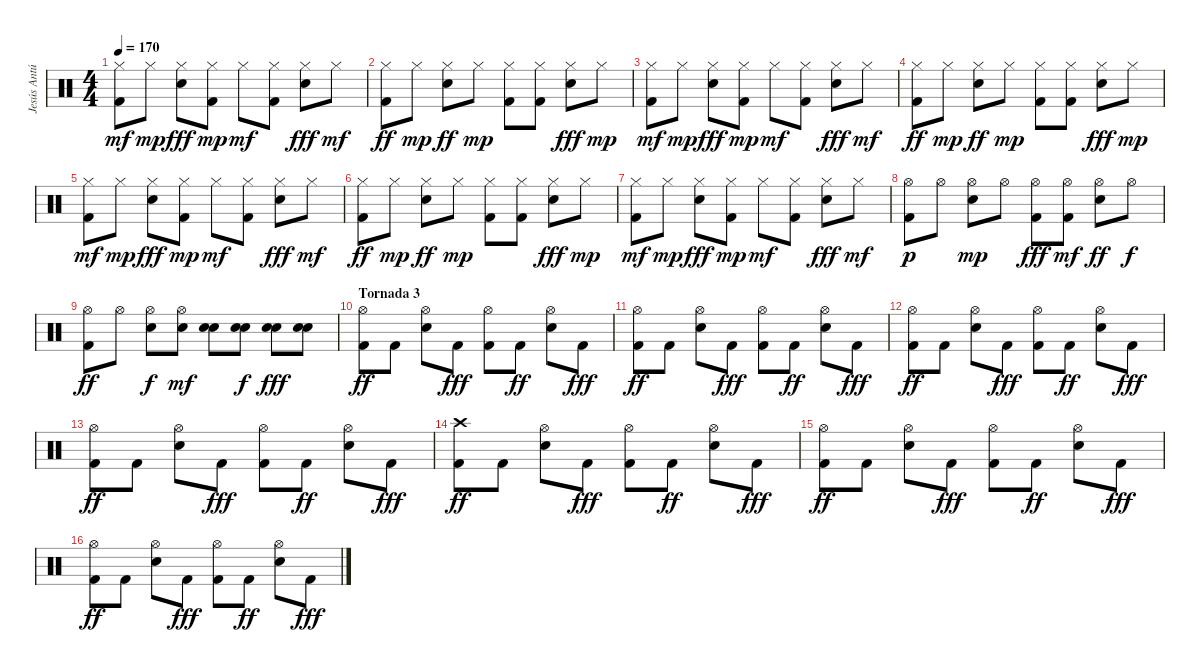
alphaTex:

\track ("Jesús Antúnez (Bateria)" "Jesús Antú") {instrument percussion}
\staff {score}
\articulation defaults
\ts (4 4)
\tempo 170
\clef neutral
\ks c
("Kick (hit) 2" "Hi-Hat (closed)").8{dy mf} "Hi-Hat (closed)".8{dy mp} ("Electric Snare (hit)" "Hi-Hat (closed)").8{dy fff} ("Kick (hit) 2" "Hi-Hat (closed)").8{dy mp} "Hi-Hat (closed)".8{dy mf} ("Kick (hit) 2" "Hi-Hat (closed)").8 ("Electric Snare (hit)" "Hi-Hat (closed)").8{dy fff} "Hi-Hat (closed)".8{dy mf} |
("Kick (hit) 2" "Hi-Hat (closed)").8{dy ff} "Hi-Hat (closed)".8{dy mp} ("Electric Snare (hit)" "Hi-Hat (closed)").8{dy ff} "Hi-Hat (closed)".8{dy mp} ("Kick (hit) 2" "Hi-Hat (closed)").8 ("Kick (hit) 2" "Hi-Hat (closed)").8 ("Electric Snare (hit)" "Hi-Hat (closed)").8{dy fff} "Hi-Hat (closed)".8{dy mp} |
("Kick (hit) 2" "Hi-Hat (closed)").8{dy mf} "Hi-Hat (closed)".8{dy mp} ("Electric Snare (hit)" "Hi-Hat (closed)").8{dy fff} ("Kick (hit) 2" "Hi-Hat (closed)").8{dy mp} "Hi-Hat (closed)".8{dy mf} ("Kick (hit) 2" "Hi-Hat (closed)").8 ("Electric Snare (hit)" "Hi-Hat (closed)").8{dy fff} "Hi-Hat (closed)".8{dy mf} |
("Kick (hit) 2" "Hi-Hat (closed)").8{dy ff} "Hi-Hat (closed)".8{dy mp} ("Electric Snare (hit)" "Hi-Hat (closed)").8{dy ff} "Hi-Hat (closed)".8{dy mp} ("Kick (hit) 2" "Hi-Hat (closed)").8 ("Kick (hit) 2" "Hi-Hat (closed)").8 ("Electric Snare (hit)" "Hi-Hat (closed)").8{dy fff} "Hi-Hat (closed)".8{dy mp} |
("Kick (hit) 2" "Hi-Hat (closed)").8{dy mf} "Hi-Hat (closed)".8{dy mp} ("Electric Snare (hit)" "Hi-Hat (closed)").8{dy fff} ("Kick (hit) 2" "Hi-Hat (closed)").8{dy mp} "Hi-Hat (closed)".8{dy mf} ("Kick (hit) 2" "Hi-Hat (closed)").8 ("Electric Snare (hit)" "Hi-Hat (closed)").8{dy fff} "Hi-Hat (closed)".8{dy mf} |
("Kick (hit) 2" "Hi-Hat (closed)").8{dy ff} "Hi-Hat (closed)".8{dy mp} ("Electric Snare (hit)" "Hi-Hat (closed)").8{dy ff} "Hi-Hat (closed)".8{dy mp} ("Kick (hit) 2" "Hi-Hat (closed)").8 ("Kick (hit) 2" "Hi-Hat (closed)").8 ("Electric Snare (hit)" "Hi-Hat (closed)").8{dy fff} "Hi-Hat (closed)".8{dy mp} |
("Kick (hit) 2" "Hi-Hat (closed)").8{dy mf} "Hi-Hat (closed)".8{dy mp} ("Electric Snare (hit)" "Hi-Hat (closed)").8{dy fff} ("Kick (hit) 2" "Hi-Hat (closed)").8{dy mp} "Hi-Hat (closed)".8{dy mf} ("Kick (hit) 2" "Hi-Hat (closed)").8 ("Electric Snare (hit)" "Hi-Hat (closed)").8{dy fff} "Hi-Hat (closed)".8{dy mf} |
("Kick (hit) 2" "Hi-Hat (open)").8{dy p} "Hi-Hat (open)".8 ("Electric Snare (hit)" "Hi-Hat (open)").8{dy mp} "Hi-Hat (open)".8 ("Kick (hit) 2" "Hi-Hat (open)").8{dy fff} ("Kick (hit) 2" "Hi-Hat (open)").8{dy mf} ("Electric Snare (hit)" "Hi-Hat (open)").8{dy ff} "Hi-Hat (open)".8{dy f} |
("Kick (hit) 2" "Hi-Hat (open)").8{dy ff} "Hi-Hat (open)".8 ("Hi-Hat (open)" "Electric Snare (hit)").8{dy f} ("Hi-Hat (open)" "Electric Snare (hit)").8{dy mf} ("Electric Snare (hit)" "Electric Snare (hit)").8 ("Electric Snare (hit)" "Electric Snare (hit)").8{dy f} ("Electric Snare (hit)" "Electric Snare (hit)").8{dy fff} ("Electric Snare (hit)" "Electric Snare (hit)").8 |
\section ("" "Tornada 3")
("Kick (hit) 2" "Hi-Hat (open)").8{dy ff} "Kick (hit) 2".8 ("Electric Snare (hit)" "Hi-Hat (open)").8 "Kick (hit) 2".8{dy fff} ("Kick (hit) 2" "Hi-Hat (open)").8 "Kick (hit) 2".8{dy ff} ("Electric Snare (hit)" "Hi-Hat (open)").8 "Kick (hit) 2".8{dy fff} |
("Kick (hit) 2" "Hi-Hat (open)").8{dy ff} "Kick (hit) 2".8 ("Electric Snare (hit)" "Hi-Hat (open)").8 "Kick (hit) 2".8{dy fff} ("Kick (hit) 2" "Hi-Hat (open)").8 "Kick (hit) 2".8{dy ff} ("Electric Snare (hit)" "Hi-Hat (open)").8 "Kick (hit) 2".8{dy fff} |
("Kick (hit) 2" "Hi-Hat (open)").8{dy ff} "Kick (hit) 2".8 ("Electric Snare (hit)" "Hi-Hat (open)").8 "Kick (hit) 2".8{dy fff} ("Kick (hit) 2" "Hi-Hat (open)").8 "Kick (hit) 2".8{dy ff} ("Electric Snare (hit)" "Hi-Hat (open)").8 "Kick (hit) 2".8{dy fff} |
("Kick (hit) 2" "Hi-Hat (open)").8{dy ff} "Kick (hit) 2".8 ("Electric Snare (hit)" "Hi-Hat (open)").8 "Kick (hit) 2".8{dy fff} ("Kick (hit) 2" "Hi-Hat (open)").8 "Kick (hit) 2".8{dy ff} ("Electric Snare (hit)" "Hi-Hat (open)").8 "Kick (hit) 2".8{dy fff} |
("Kick (hit) 2" "Crash high (hit)").8{dy ff} "Kick (hit) 2".8 ("Electric Snare (hit)" "Hi-Hat (open)").8 "Kick (hit) 2".8{dy fff} ("Kick (hit) 2" "Hi-Hat (open)").8 "Kick (hit) 2".8{dy ff} ("Electric Snare (hit)" "Hi-Hat (open)").8 "Kick (hit) 2".8{dy fff} |
("Kick (hit) 2" "Hi-Hat (open)").8{dy ff} "Kick (hit) 2".8 ("Electric Snare (hit)" "Hi-Hat (open)").8 "Kick (hit) 2".8{dy fff} ("Kick (hit) 2" "Hi-Hat (open)").8 "Kick (hit) 2".8{dy ff} ("Electric Snare (hit)" "Hi-Hat (open)").8 "Kick (hit) 2".8{dy fff} |
("Kick (hit) 2" "Hi-Hat (open)").8{dy ff} "Kick (hit) 2".8 ("Electric Snare (hit)" "Hi-Hat (open)").8 "Kick (hit) 2".8{dy fff} ("Kick (hit) 2" "Hi-Hat (open)").8 "Kick (hit) 2".8{dy ff} ("Electric Snare (hit)" "Hi-Hat (open)").8 "Kick (hit) 2".8{dy fff}
